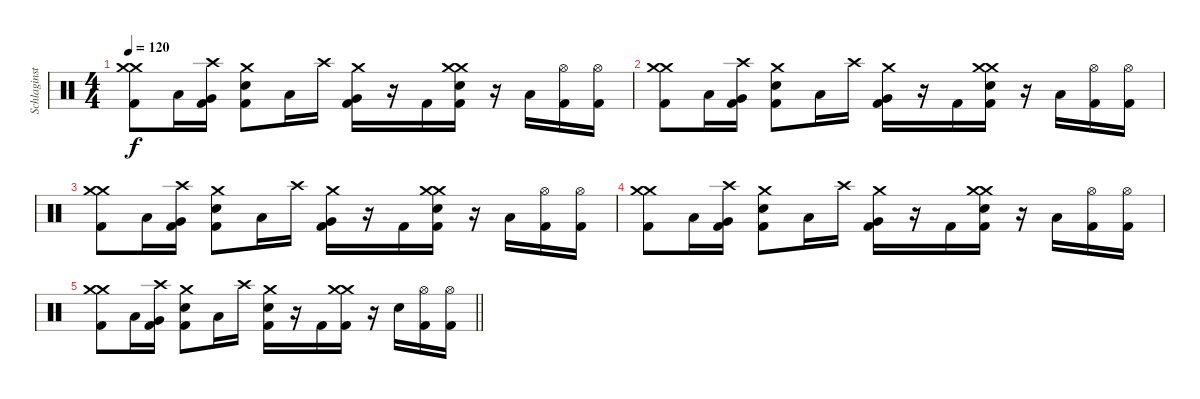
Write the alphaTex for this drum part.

\track ("Schlaginstrumente - Auswahl" "Schlaginst") {instrument percussion}
\staff {score}
\articulation defaults
\ts (4 4)
\tempo 120
\clef neutral
\ks c
("Crash medium (hit)" "Kick (hit) 2" "Crash medium (hit)").8{dy f} "Low Tom (hit)".16 ("Very Low Tom (hit)" "Kick (hit) 2" "Crash high (hit)").16 ("Electric Snare (hit)" "Kick (hit) 2" "Crash medium (hit)").8 "Low Tom (hit)".16 "Crash high (hit)".16 ("Very Low Tom (hit)" "Kick (hit) 2" "Crash medium (hit)").16 r.16 "Kick (hit) 2".16 ("Crash medium (hit)" "Electric Snare (hit)" "Kick (hit) 2" "Crash medium (hit)").16 r.16 "Low Tom (hit)".16 ("Kick (hit) 2" "Hi-Hat (open)").16 ("Kick (hit) 2" "Hi-Hat (open)").16 |
("Crash medium (hit)" "Kick (hit) 2" "Crash medium (hit)").8 "Low Tom (hit)".16 ("Very Low Tom (hit)" "Kick (hit) 2" "Crash high (hit)").16 ("Electric Snare (hit)" "Kick (hit) 2" "Crash medium (hit)").8 "Low Tom (hit)".16 "Crash high (hit)".16 ("Very Low Tom (hit)" "Kick (hit) 2" "Crash medium (hit)").16 r.16 "Kick (hit) 2".16 ("Crash medium (hit)" "Electric Snare (hit)" "Kick (hit) 2" "Crash medium (hit)").16 r.16 "Low Tom (hit)".16 ("Kick (hit) 2" "Hi-Hat (open)").16 ("Kick (hit) 2" "Hi-Hat (open)").16 |
("Crash medium (hit)" "Kick (hit) 2" "Crash medium (hit)").8 "Low Tom (hit)".16 ("Very Low Tom (hit)" "Kick (hit) 2" "Crash high (hit)").16 ("Electric Snare (hit)" "Kick (hit) 2" "Crash medium (hit)").8 "Low Tom (hit)".16 "Crash high (hit)".16 ("Very Low Tom (hit)" "Kick (hit) 2" "Crash medium (hit)").16 r.16 "Kick (hit) 2".16 ("Crash medium (hit)" "Electric Snare (hit)" "Kick (hit) 2" "Crash medium (hit)").16 r.16 "Low Tom (hit)".16 ("Kick (hit) 2" "Hi-Hat (open)").16 ("Kick (hit) 2" "Hi-Hat (open)").16 |
("Crash medium (hit)" "Kick (hit) 2" "Crash medium (hit)").8 "Low Tom (hit)".16 ("Very Low Tom (hit)" "Kick (hit) 2" "Crash high (hit)").16 ("Electric Snare (hit)" "Kick (hit) 2" "Crash medium (hit)").8 "Low Tom (hit)".16 "Crash high (hit)".16 ("Very Low Tom (hit)" "Kick (hit) 2" "Crash medium (hit)").16 r.16 "Kick (hit) 2".16 ("Crash medium (hit)" "Electric Snare (hit)" "Kick (hit) 2" "Crash medium (hit)").16 r.16 "Low Tom (hit)".16 ("Kick (hit) 2" "Hi-Hat (open)").16 ("Kick (hit) 2" "Hi-Hat (open)").16 |
\barLineRight lightlight
("Crash medium (hit)" "Kick (hit) 2" "Crash medium (hit)").8 "Low Tom (hit)".16 ("Very Low Tom (hit)" "Kick (hit) 2" "Crash high (hit)").16 ("Electric Snare (hit)" "Kick (hit) 2" "Crash medium (hit)").8 "Low Tom (hit)".16 "Crash high (hit)".16 ("Electric Snare (hit)" "Kick (hit) 2" "Crash medium (hit)").16 r.16 "Kick (hit) 2".16 ("Crash medium (hit)" "Kick (hit) 2" "Crash medium (hit)").16 r.16 "Electric Snare (hit)".16 ("Kick (hit) 2" "Hi-Hat (open)").16 ("Kick (hit) 2" "Hi-Hat (open)").16
